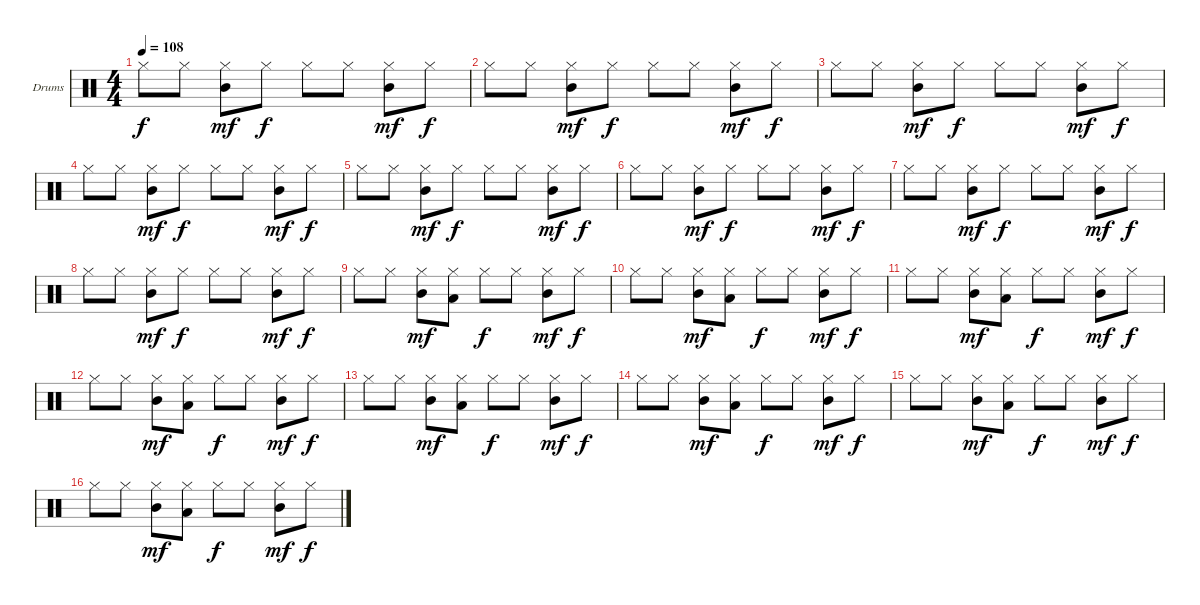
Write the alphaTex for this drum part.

\defaultSystemsLayout 4
\bracketExtendMode groupsimilarinstruments
\firstSystemTrackNameOrientation horizontal
\otherSystemsTrackNameOrientation horizontal
\track ("Drumkit" "Drums") {instrument percussion}
\staff {score}
\articulation defaults
\ts (4 4)
\tempo 108
\clef neutral
\ks c "Hi-Hat (closed)".8{dy f} "Hi-Hat (closed)".8
("Hi-Hat (closed)" "Mid Tom (hit)").8{dy mf} "Hi-Hat (closed)".8{dy f} "Hi-Hat (closed)".8 "Hi-Hat (closed)".8 ("Hi-Hat (closed)" "Mid Tom (hit)").8{dy mf} "Hi-Hat (closed)".8{dy f} |
"Hi-Hat (closed)".8 "Hi-Hat (closed)".8 ("Hi-Hat (closed)" "Mid Tom (hit)").8{dy mf} "Hi-Hat (closed)".8{dy f} "Hi-Hat (closed)".8 "Hi-Hat (closed)".8 ("Hi-Hat (closed)" "Mid Tom (hit)").8{dy mf} "Hi-Hat (closed)".8{dy f} |
"Hi-Hat (closed)".8 "Hi-Hat (closed)".8 ("Hi-Hat (closed)" "Mid Tom (hit)").8{dy mf} "Hi-Hat (closed)".8{dy f} "Hi-Hat (closed)".8 "Hi-Hat (closed)".8 ("Hi-Hat (closed)" "Mid Tom (hit)").8{dy mf} "Hi-Hat (closed)".8{dy f} |
"Hi-Hat (closed)".8 "Hi-Hat (closed)".8 ("Hi-Hat (closed)" "Mid Tom (hit)").8{dy mf} "Hi-Hat (closed)".8{dy f} "Hi-Hat (closed)".8 "Hi-Hat (closed)".8 ("Hi-Hat (closed)" "Mid Tom (hit)").8{dy mf} "Hi-Hat (closed)".8{dy f} |
"Hi-Hat (closed)".8 "Hi-Hat (closed)".8 ("Hi-Hat (closed)" "Mid Tom (hit)").8{dy mf} "Hi-Hat (closed)".8{dy f} "Hi-Hat (closed)".8 "Hi-Hat (closed)".8 ("Hi-Hat (closed)" "Mid Tom (hit)").8{dy mf} "Hi-Hat (closed)".8{dy f} |
"Hi-Hat (closed)".8 "Hi-Hat (closed)".8 ("Hi-Hat (closed)" "Mid Tom (hit)").8{dy mf} "Hi-Hat (closed)".8{dy f} "Hi-Hat (closed)".8 "Hi-Hat (closed)".8 ("Hi-Hat (closed)" "Mid Tom (hit)").8{dy mf} "Hi-Hat (closed)".8{dy f} |
"Hi-Hat (closed)".8 "Hi-Hat (closed)".8 ("Hi-Hat (closed)" "Mid Tom (hit)").8{dy mf} "Hi-Hat (closed)".8{dy f} "Hi-Hat (closed)".8 "Hi-Hat (closed)".8 ("Hi-Hat (closed)" "Mid Tom (hit)").8{dy mf} "Hi-Hat (closed)".8{dy f} |
"Hi-Hat (closed)".8 "Hi-Hat (closed)".8 ("Hi-Hat (closed)" "Mid Tom (hit)").8{dy mf} "Hi-Hat (closed)".8{dy f} "Hi-Hat (closed)".8 "Hi-Hat (closed)".8 ("Hi-Hat (closed)" "Mid Tom (hit)").8{dy mf} "Hi-Hat (closed)".8{dy f} |
"Hi-Hat (closed)".8 "Hi-Hat (closed)".8 ("Hi-Hat (closed)" "Mid Tom (hit)").8{dy mf} ("Hi-Hat (closed)" "Low Tom (hit)").8 "Hi-Hat (closed)".8{dy f} "Hi-Hat (closed)".8 ("Hi-Hat (closed)" "Mid Tom (hit)").8{dy mf} "Hi-Hat (closed)".8{dy f} |
"Hi-Hat (closed)".8 "Hi-Hat (closed)".8 ("Hi-Hat (closed)" "Mid Tom (hit)").8{dy mf} ("Hi-Hat (closed)" "Low Tom (hit)").8 "Hi-Hat (closed)".8{dy f} "Hi-Hat (closed)".8 ("Hi-Hat (closed)" "Mid Tom (hit)").8{dy mf} "Hi-Hat (closed)".8{dy f} |
"Hi-Hat (closed)".8 "Hi-Hat (closed)".8 ("Hi-Hat (closed)" "Mid Tom (hit)").8{dy mf} ("Hi-Hat (closed)" "Low Tom (hit)").8 "Hi-Hat (closed)".8{dy f} "Hi-Hat (closed)".8 ("Hi-Hat (closed)" "Mid Tom (hit)").8{dy mf} "Hi-Hat (closed)".8{dy f} |
"Hi-Hat (closed)".8 "Hi-Hat (closed)".8 ("Hi-Hat (closed)" "Mid Tom (hit)").8{dy mf} ("Hi-Hat (closed)" "Low Tom (hit)").8 "Hi-Hat (closed)".8{dy f} "Hi-Hat (closed)".8 ("Hi-Hat (closed)" "Mid Tom (hit)").8{dy mf} "Hi-Hat (closed)".8{dy f} |
"Hi-Hat (closed)".8 "Hi-Hat (closed)".8 ("Hi-Hat (closed)" "Mid Tom (hit)").8{dy mf} ("Hi-Hat (closed)" "Low Tom (hit)").8 "Hi-Hat (closed)".8{dy f} "Hi-Hat (closed)".8 ("Hi-Hat (closed)" "Mid Tom (hit)").8{dy mf} "Hi-Hat (closed)".8{dy f} |
"Hi-Hat (closed)".8 "Hi-Hat (closed)".8 ("Hi-Hat (closed)" "Mid Tom (hit)").8{dy mf} ("Hi-Hat (closed)" "Low Tom (hit)").8 "Hi-Hat (closed)".8{dy f} "Hi-Hat (closed)".8 ("Hi-Hat (closed)" "Mid Tom (hit)").8{dy mf} "Hi-Hat (closed)".8{dy f} |
"Hi-Hat (closed)".8 "Hi-Hat (closed)".8 ("Hi-Hat (closed)" "Mid Tom (hit)").8{dy mf} ("Hi-Hat (closed)" "Low Tom (hit)").8 "Hi-Hat (closed)".8{dy f} "Hi-Hat (closed)".8 ("Hi-Hat (closed)" "Mid Tom (hit)").8{dy mf} "Hi-Hat (closed)".8{dy f} |
"Hi-Hat (closed)".8 "Hi-Hat (closed)".8 ("Hi-Hat (closed)" "Mid Tom (hit)").8{dy mf} ("Hi-Hat (closed)" "Low Tom (hit)").8 "Hi-Hat (closed)".8{dy f} "Hi-Hat (closed)".8 ("Hi-Hat (closed)" "Mid Tom (hit)").8{dy mf} "Hi-Hat (closed)".8{dy f}
